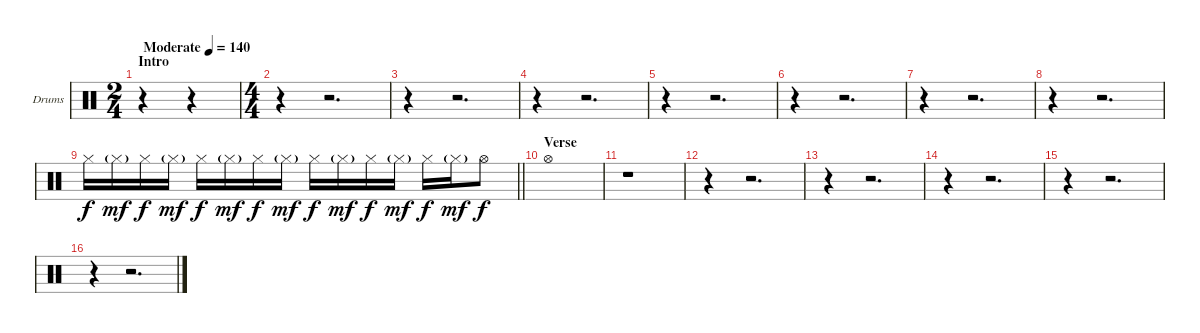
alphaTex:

\bracketExtendMode groupsimilarinstruments
\firstSystemTrackNameOrientation horizontal
\otherSystemsTrackNameOrientation horizontal
\track ("Drumkit" "Drums") {instrument percussion}
\staff {score}
\articulation defaults
\ts (2 4)
\beaming (8 2 2)
\section ("" "Intro")
\tempo (140 "Moderate")
\clef neutral
\ks c
r.4{dy f} r.4 |
\ts (4 4)
\beaming (8 2 2 2 2)
r.4 r.2{d} |
r.4 r.2{d} |
r.4 r.2{d} |
r.4 r.2{d} |
r.4 r.2{d} |
r.4 r.2{d} |
r.4 r.2{d} |
\barLineRight lightlight "Hi-Hat (closed)".16 "Hi-Hat (closed)"{g}.16{dy mf} "Hi-Hat (closed)".16{dy f} "Hi-Hat (closed)"{g}.16{dy mf} "Hi-Hat (closed)".16{dy f} "Hi-Hat (closed)"{g}.16{dy mf} "Hi-Hat (closed)".16{dy f} "Hi-Hat (closed)"{g}.16{dy mf} "Hi-Hat (closed)".16{dy f} "Hi-Hat (closed)"{g}.16{dy mf} "Hi-Hat (closed)".16{dy f} "Hi-Hat (closed)"{g}.16{dy mf} "Hi-Hat (closed)".16{dy f} "Hi-Hat (closed)"{g}.16{dy mf} "Hi-Hat (open)".8{dy f}
|
\section ("" "Verse")
"Hi-Hat (open)".1 |
r.1 |
r.4 r.2{d} |
r.4 r.2{d} |
r.4 r.2{d} |
r.4 r.2{d} |
r.4 r.2{d}
